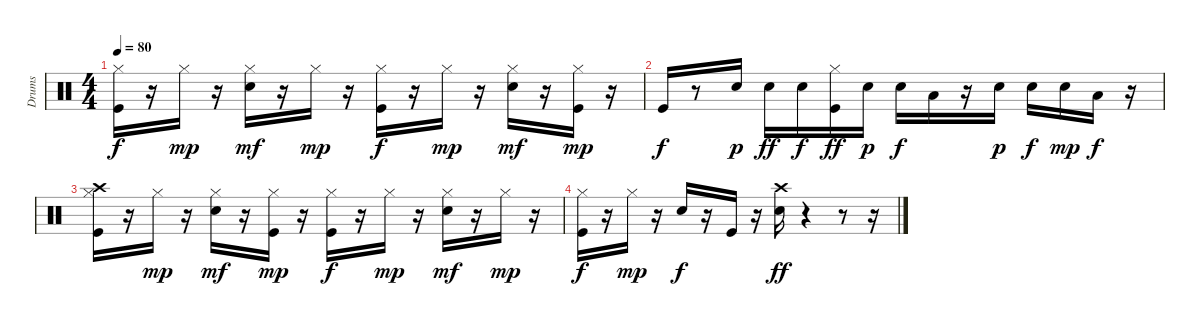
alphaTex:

\track ("Drums  " "Drums  ") {instrument percussion}
\staff {score}
\articulation defaults
\ts (4 4)
\tempo 80
\clef neutral
\ks c
("Kick (hit)" "Hi-Hat (closed)").16{dy f} r.16 "Hi-Hat (closed)".16{dy mp} r.16 ("Snare (hit) 2" "Hi-Hat (closed)").16{dy mf} r.16 "Hi-Hat (closed)".16{dy mp} r.16 ("Kick (hit)" "Hi-Hat (closed)").16{dy f} r.16 "Hi-Hat (closed)".16{dy mp} r.16 ("Snare (hit) 2" "Hi-Hat (closed)").16{dy mf} r.16 ("Kick (hit)" "Hi-Hat (closed)").16{dy mp} r.16 |
"Kick (hit)".16{dy f} r.8 "Snare (hit) 2".16{dy p} "Snare (hit) 2".16{dy ff} "Snare (hit) 2".16{dy f} ("Kick (hit)" "Hi-Hat (closed)").16{dy ff} "Snare (hit) 2".16{dy p} "Snare (hit) 2".16{dy f} "Low Tom (hit)".16 r.16 "Snare (hit) 2".16{dy p} "Snare (hit) 2".16{dy f} "Snare (hit) 2".16{dy mp} "Low Floor Tom (hit)".16{dy f} r.16 |
("Kick (hit)" "Hi-Hat (closed)" "Crash high (hit)").16 r.16 "Hi-Hat (closed)".16{dy mp} r.16 ("Snare (hit) 2" "Hi-Hat (closed)").16{dy mf} r.16 ("Kick (hit)" "Hi-Hat (closed)").16{dy mp} r.16 ("Kick (hit)" "Hi-Hat (closed)").16{dy f} r.16 "Hi-Hat (closed)".16{dy mp} r.16 ("Snare (hit) 2" "Hi-Hat (closed)").16{dy mf} r.16 "Hi-Hat (closed)".16{dy mp} r.16 |
("Kick (hit)" "Hi-Hat (closed)").16{dy f} r.16 "Hi-Hat (closed)".16{dy mp} r.16 "Snare (hit) 2".16{dy f} r.16 "Kick (hit)".16 r.16 ("Snare (hit) 2" "Crash high (hit)").16{dy ff} r.4 r.8 r.16
